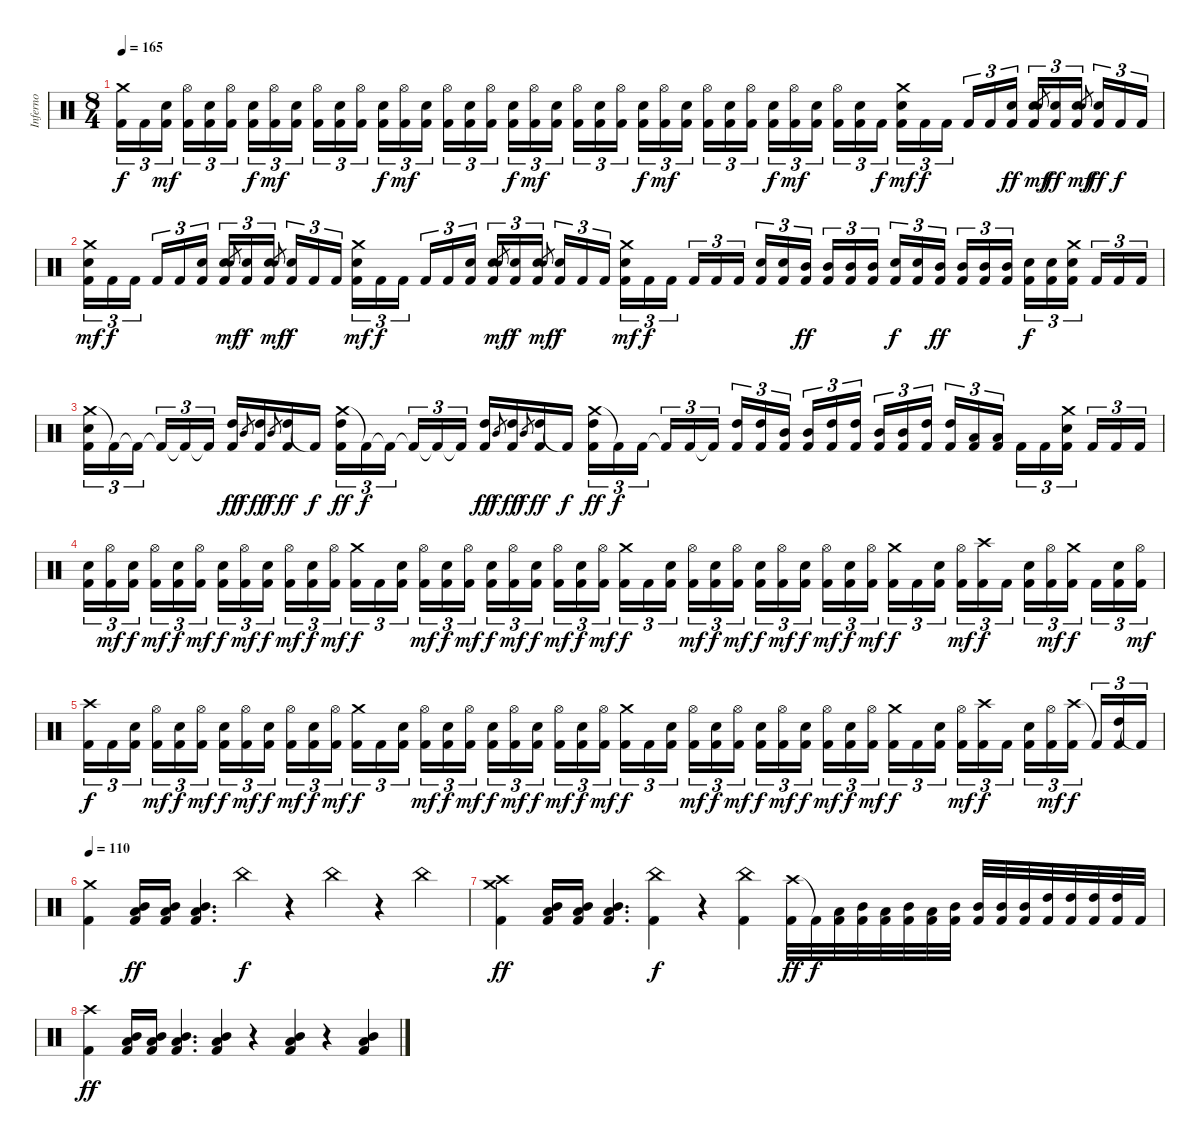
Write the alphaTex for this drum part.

\track ("Inferno" "Inferno") {instrument percussion}
\staff {score}
\articulation defaults
\ts (8 4)
\tempo 165
\clef neutral
\ks c
("Crash medium (hit)" "Kick (hit) 2").16{tu (3 2) dy f} "Kick (hit) 2".16{tu (3 2)} ("Snare (hit) 2" "Kick (hit) 2").16{tu (3 2) dy mf beam splitsecondary} ("Hi-Hat (open)" "Kick (hit) 2").16{tu (3 2)} ("Snare (hit) 2" "Kick (hit) 2").16{tu (3 2)} ("Hi-Hat (open)" "Kick (hit) 2").16{tu (3 2)} ("Snare (hit) 2" "Kick (hit) 2").16{tu (3 2) dy f} ("Hi-Hat (open)" "Kick (hit) 2").16{tu (3 2) dy mf} ("Snare (hit) 2" "Kick (hit) 2").16{tu (3 2) beam splitsecondary} ("Hi-Hat (open)" "Kick (hit) 2").16{tu (3 2)} ("Snare (hit) 2" "Kick (hit) 2").16{tu (3 2)} ("Hi-Hat (open)" "Kick (hit) 2").16{tu (3 2)} ("Snare (hit) 2" "Kick (hit) 2").16{tu (3 2) dy f} ("Hi-Hat (open)" "Kick (hit) 2").16{tu (3 2) dy mf} ("Snare (hit) 2" "Kick (hit) 2").16{tu (3 2) beam splitsecondary} ("Hi-Hat (open)" "Kick (hit) 2").16{tu (3 2)} ("Snare (hit) 2" "Kick (hit) 2").16{tu (3 2)} ("Hi-Hat (open)" "Kick (hit) 2").16{tu (3 2)} ("Snare (hit) 2" "Kick (hit) 2").16{tu (3 2) dy f} ("Hi-Hat (open)" "Kick (hit) 2").16{tu (3 2) dy mf} ("Snare (hit) 2" "Kick (hit) 2").16{tu (3 2) beam splitsecondary} ("Hi-Hat (open)" "Kick (hit) 2").16{tu (3 2)} ("Snare (hit) 2" "Kick (hit) 2").16{tu (3 2)} ("Hi-Hat (open)" "Kick (hit) 2").16{tu (3 2)} ("Snare (hit) 2" "Kick (hit) 2").16{tu (3 2) dy f} ("Hi-Hat (open)" "Kick (hit) 2").16{tu (3 2) dy mf} ("Snare (hit) 2" "Kick (hit) 2").16{tu (3 2) beam splitsecondary} ("Hi-Hat (open)" "Kick (hit) 2").16{tu (3 2)} ("Snare (hit) 2" "Kick (hit) 2").16{tu (3 2)} ("Hi-Hat (open)" "Kick (hit) 2").16{tu (3 2)} ("Snare (hit) 2" "Kick (hit) 2").16{tu (3 2) dy f} ("Hi-Hat (open)" "Kick (hit) 2").16{tu (3 2) dy mf} ("Snare (hit) 2" "Kick (hit) 2").16{tu (3 2) beam splitsecondary} ("Hi-Hat (open)" "Kick (hit) 2").16{tu (3 2)} ("Snare (hit) 2" "Kick (hit) 2").16{tu (3 2)} "Kick (hit) 2".16{tu (3 2) dy f} ("Crash medium (hit)" "Snare (hit) 2" "Kick (hit) 2").16{tu (3 2) dy mf} "Kick (hit) 2".16{tu (3 2) dy f} "Kick (hit) 2".16{tu (3 2) beam splitsecondary} "Kick (hit) 2".16{tu (3 2)} "Kick (hit) 2".16{tu (3 2)} ("Snare (hit) 2" "Kick (hit) 2").16{tu (3 2) dy ff} ("Snare (hit) 2" "Kick (hit) 2").16{tu (3 2)} "Snare (hit) 2".8{gr dy mf} ("Snare (hit) 2" "Kick (hit) 2").16{tu (3 2) dy ff} ("Snare (hit) 2" "Kick (hit) 2").16{tu (3 2)} "Snare (hit) 2".8{gr dy mf beam splitsecondary} ("Snare (hit) 2" "Kick (hit) 2").16{tu (3 2) dy ff} "Kick (hit) 2".16{tu (3 2) dy f} "Kick (hit) 2".16{tu (3 2)} |
("Crash medium (hit)" "Snare (hit) 2" "Kick (hit) 2").16{tu (3 2) dy mf} "Kick (hit) 2".16{tu (3 2) dy f} "Kick (hit) 2".16{tu (3 2) beam splitsecondary} "Kick (hit) 2".16{tu (3 2)} "Kick (hit) 2".16{tu (3 2)} ("Snare (hit) 2" "Kick (hit) 2").16{tu (3 2)} ("Snare (hit) 2" "Kick (hit) 2").16{tu (3 2)} "Snare (hit) 2".8{gr dy mf} ("Snare (hit) 2" "Kick (hit) 2").16{tu (3 2) dy f} ("Snare (hit) 2" "Kick (hit) 2").16{tu (3 2)} "Snare (hit) 2".8{gr dy mf beam splitsecondary} ("Snare (hit) 2" "Kick (hit) 2").16{tu (3 2) dy f} "Kick (hit) 2".16{tu (3 2)} "Kick (hit) 2".16{tu (3 2)} ("Crash medium (hit)" "Snare (hit) 2" "Kick (hit) 2").16{tu (3 2) dy mf} "Kick (hit) 2".16{tu (3 2) dy f} "Kick (hit) 2".16{tu (3 2) beam splitsecondary} "Kick (hit) 2".16{tu (3 2)} "Kick (hit) 2".16{tu (3 2)} ("Snare (hit) 2" "Kick (hit) 2").16{tu (3 2)} ("Snare (hit) 2" "Kick (hit) 2").16{tu (3 2)} "Snare (hit) 2".8{gr dy mf} ("Snare (hit) 2" "Kick (hit) 2").16{tu (3 2) dy f} ("Snare (hit) 2" "Kick (hit) 2").16{tu (3 2)} "Snare (hit) 2".8{gr dy mf beam splitsecondary} ("Snare (hit) 2" "Kick (hit) 2").16{tu (3 2) dy f} "Kick (hit) 2".16{tu (3 2)} "Kick (hit) 2".16{tu (3 2)} ("Crash medium (hit)" "Snare (hit) 2" "Kick (hit) 2").16{tu (3 2) dy mf} "Kick (hit) 2".16{tu (3 2) dy f} "Kick (hit) 2".16{tu (3 2) beam splitsecondary} "Kick (hit) 2".16{tu (3 2)} "Kick (hit) 2".16{tu (3 2)} "Kick (hit) 2".16{tu (3 2)} ("Snare (hit) 2" "Kick (hit) 2").16{tu (3 2)} ("Snare (hit) 2" "Kick (hit) 2").16{tu (3 2)} ("Mid Tom (hit)" "Kick (hit) 2").16{tu (3 2) dy ff beam splitsecondary} ("Mid Tom (hit)" "Kick (hit) 2").16{tu (3 2)} ("Mid Tom (hit)" "Kick (hit) 2").16{tu (3 2)} ("Mid Tom (hit)" "Kick (hit) 2").16{tu (3 2)} ("Snare (hit) 2" "Kick (hit) 2").16{tu (3 2) dy f} ("Snare (hit) 2" "Kick (hit) 2").16{tu (3 2)} ("Mid Tom (hit)" "Kick (hit) 2").16{tu (3 2) dy ff beam splitsecondary} ("Mid Tom (hit)" "Kick (hit) 2").16{tu (3 2)} ("Mid Tom (hit)" "Kick (hit) 2").16{tu (3 2)} ("Mid Tom (hit)" "Kick (hit) 2").16{tu (3 2)} ("Snare (hit) 2" "Kick (hit) 2").16{tu (3 2) dy f} ("Snare (hit) 2" "Kick (hit) 2").16{tu (3 2)} ("Crash medium (hit)" "Snare (hit) 2" "Kick (hit) 2").16{tu (3 2) beam splitsecondary} "Kick (hit) 2".16{tu (3 2)} "Kick (hit) 2".16{tu (3 2)} "Kick (hit) 2".16{tu (3 2)} |
("Crash medium (hit)" "Snare (hit) 2" "Kick (hit) 2").16{tu (3 2)} "Kick (hit) 2"{t}.16{tu (3 2)} "Kick (hit) 2"{t}.16{tu (3 2) beam splitsecondary} "Kick (hit) 2"{t}.16{tu (3 2)} "Kick (hit) 2"{t}.16{tu (3 2)} "Kick (hit) 2"{t}.16{tu (3 2)} ("High Tom (hit)" "Kick (hit) 2").16{dy ff} "Mid Tom (hit)".8{gr dy f} ("High Tom (hit)" "Kick (hit) 2").16{dy ff} "Mid Tom (hit)".8{gr dy f} ("High Tom (hit)" "Kick (hit) 2").16{dy ff} "Kick (hit) 2"{t}.16{dy f} ("Crash medium (hit)" "High Tom (hit)" "Kick (hit) 2").16{tu (3 2) dy ff} "Kick (hit) 2"{t}.16{tu (3 2) dy f} "Kick (hit) 2"{t}.16{tu (3 2) beam splitsecondary} "Kick (hit) 2"{t}.16{tu (3 2)} "Kick (hit) 2"{t}.16{tu (3 2)} "Kick (hit) 2"{t}.16{tu (3 2)} ("High Tom (hit)" "Kick (hit) 2").16{dy ff} "Mid Tom (hit)".8{gr dy f} ("High Tom (hit)" "Kick (hit) 2").16{dy ff} "Mid Tom (hit)".8{gr dy f} ("High Tom (hit)" "Kick (hit) 2").16{dy ff} "Kick (hit) 2"{t}.16{dy f} ("Crash medium (hit)" "High Tom (hit)" "Kick (hit) 2").16{tu (3 2) dy ff} "Kick (hit) 2"{t}.16{tu (3 2) dy f} "Kick (hit) 2".16{tu (3 2) beam splitsecondary} "Kick (hit) 2"{t}.16{tu (3 2)} "Kick (hit) 2".16{tu (3 2)} "Kick (hit) 2"{t}.16{tu (3 2)} ("High Tom (hit)" "Kick (hit) 2").16{tu (3 2)} ("High Tom (hit)" "Kick (hit) 2").16{tu (3 2)} ("Mid Tom (hit)" "Kick (hit) 2").16{tu (3 2) beam splitsecondary} ("Mid Tom (hit)" "Kick (hit) 2").16{tu (3 2)} ("High Tom (hit)" "Kick (hit) 2").16{tu (3 2)} ("High Tom (hit)" "Kick (hit) 2").16{tu (3 2)} ("Mid Tom (hit)" "Kick (hit) 2").16{tu (3 2)} ("Mid Tom (hit)" "Kick (hit) 2").16{tu (3 2)} ("High Tom (hit)" "Kick (hit) 2").16{tu (3 2) beam splitsecondary} ("High Tom (hit)" "Kick (hit) 2").16{tu (3 2)} ("Low Tom (hit)" "Kick (hit) 2").16{tu (3 2)} ("Low Tom (hit)" "Kick (hit) 2").16{tu (3 2)} "Kick (hit) 2".16{tu (3 2)} "Kick (hit) 2".16{tu (3 2)} ("Crash medium (hit)" "Snare (hit) 2" "Kick (hit) 2").16{tu (3 2) beam splitsecondary} "Kick (hit) 2".16{tu (3 2)} "Kick (hit) 2".16{tu (3 2)} "Kick (hit) 2".16{tu (3 2)} |
("Snare (hit) 2" "Kick (hit) 2").16{tu (3 2)} ("Hi-Hat (open)" "Kick (hit) 2").16{tu (3 2) dy mf} ("Snare (hit) 2" "Kick (hit) 2").16{tu (3 2) dy f beam splitsecondary} ("Hi-Hat (open)" "Kick (hit) 2").16{tu (3 2) dy mf} ("Snare (hit) 2" "Kick (hit) 2").16{tu (3 2) dy f} ("Hi-Hat (open)" "Kick (hit) 2").16{tu (3 2) dy mf} ("Snare (hit) 2" "Kick (hit) 2").16{tu (3 2) dy f} ("Hi-Hat (open)" "Kick (hit) 2").16{tu (3 2) dy mf} ("Snare (hit) 2" "Kick (hit) 2").16{tu (3 2) dy f beam splitsecondary} ("Hi-Hat (open)" "Kick (hit) 2").16{tu (3 2) dy mf} ("Snare (hit) 2" "Kick (hit) 2").16{tu (3 2) dy f} ("Hi-Hat (open)" "Kick (hit) 2").16{tu (3 2) dy mf} ("Crash medium (hit)" "Kick (hit) 2").16{tu (3 2) dy f} "Kick (hit) 2".16{tu (3 2)} ("Snare (hit) 2" "Kick (hit) 2").16{tu (3 2) beam splitsecondary} ("Hi-Hat (open)" "Kick (hit) 2").16{tu (3 2) dy mf} ("Snare (hit) 2" "Kick (hit) 2").16{tu (3 2) dy f} ("Hi-Hat (open)" "Kick (hit) 2").16{tu (3 2) dy mf} ("Snare (hit) 2" "Kick (hit) 2").16{tu (3 2) dy f} ("Hi-Hat (open)" "Kick (hit) 2").16{tu (3 2) dy mf} ("Snare (hit) 2" "Kick (hit) 2").16{tu (3 2) dy f beam splitsecondary} ("Hi-Hat (open)" "Kick (hit) 2").16{tu (3 2) dy mf} ("Snare (hit) 2" "Kick (hit) 2").16{tu (3 2) dy f} ("Hi-Hat (open)" "Kick (hit) 2").16{tu (3 2) dy mf} ("Crash medium (hit)" "Kick (hit) 2").16{tu (3 2) dy f} "Kick (hit) 2".16{tu (3 2)} ("Snare (hit) 2" "Kick (hit) 2").16{tu (3 2) beam splitsecondary} ("Hi-Hat (open)" "Kick (hit) 2").16{tu (3 2) dy mf} ("Snare (hit) 2" "Kick (hit) 2").16{tu (3 2) dy f} ("Hi-Hat (open)" "Kick (hit) 2").16{tu (3 2) dy mf} ("Snare (hit) 2" "Kick (hit) 2").16{tu (3 2) dy f} ("Hi-Hat (open)" "Kick (hit) 2").16{tu (3 2) dy mf} ("Snare (hit) 2" "Kick (hit) 2").16{tu (3 2) dy f beam splitsecondary} ("Hi-Hat (open)" "Kick (hit) 2").16{tu (3 2) dy mf} ("Snare (hit) 2" "Kick (hit) 2").16{tu (3 2) dy f} ("Hi-Hat (open)" "Kick (hit) 2").16{tu (3 2) dy mf} ("Crash medium (hit)" "Kick (hit) 2").16{tu (3 2) dy f} "Kick (hit) 2".16{tu (3 2)} ("Snare (hit) 2" "Kick (hit) 2").16{tu (3 2) beam splitsecondary} ("Hi-Hat (open)" "Kick (hit) 2").16{tu (3 2) dy mf} ("Crash high (hit)" "Kick (hit) 2").16{tu (3 2) dy f} "Kick (hit) 2".16{tu (3 2)} ("Snare (hit) 2" "Kick (hit) 2").16{tu (3 2)} ("Hi-Hat (open)" "Kick (hit) 2").16{tu (3 2) dy mf} ("Crash medium (hit)" "Kick (hit) 2").16{tu (3 2) dy f beam splitsecondary} "Kick (hit) 2".16{tu (3 2)} ("Snare (hit) 2" "Kick (hit) 2").16{tu (3 2)} ("Hi-Hat (open)" "Kick (hit) 2").16{tu (3 2) dy mf} |
("Crash high (hit)" "Kick (hit) 2").16{tu (3 2) dy f} "Kick (hit) 2".16{tu (3 2)} ("Snare (hit) 2" "Kick (hit) 2").16{tu (3 2) beam splitsecondary} ("Hi-Hat (open)" "Kick (hit) 2").16{tu (3 2) dy mf} ("Snare (hit) 2" "Kick (hit) 2").16{tu (3 2) dy f} ("Hi-Hat (open)" "Kick (hit) 2").16{tu (3 2) dy mf} ("Snare (hit) 2" "Kick (hit) 2").16{tu (3 2) dy f} ("Hi-Hat (open)" "Kick (hit) 2").16{tu (3 2) dy mf} ("Snare (hit) 2" "Kick (hit) 2").16{tu (3 2) dy f beam splitsecondary} ("Hi-Hat (open)" "Kick (hit) 2").16{tu (3 2) dy mf} ("Snare (hit) 2" "Kick (hit) 2").16{tu (3 2) dy f} ("Hi-Hat (open)" "Kick (hit) 2").16{tu (3 2) dy mf} ("Crash medium (hit)" "Kick (hit) 2").16{tu (3 2) dy f} "Kick (hit) 2".16{tu (3 2)} ("Snare (hit) 2" "Kick (hit) 2").16{tu (3 2) beam splitsecondary} ("Hi-Hat (open)" "Kick (hit) 2").16{tu (3 2) dy mf} ("Snare (hit) 2" "Kick (hit) 2").16{tu (3 2) dy f} ("Hi-Hat (open)" "Kick (hit) 2").16{tu (3 2) dy mf} ("Snare (hit) 2" "Kick (hit) 2").16{tu (3 2) dy f} ("Hi-Hat (open)" "Kick (hit) 2").16{tu (3 2) dy mf} ("Snare (hit) 2" "Kick (hit) 2").16{tu (3 2) dy f beam splitsecondary} ("Hi-Hat (open)" "Kick (hit) 2").16{tu (3 2) dy mf} ("Snare (hit) 2" "Kick (hit) 2").16{tu (3 2) dy f} ("Hi-Hat (open)" "Kick (hit) 2").16{tu (3 2) dy mf} ("Crash medium (hit)" "Kick (hit) 2").16{tu (3 2) dy f} "Kick (hit) 2".16{tu (3 2)} ("Snare (hit) 2" "Kick (hit) 2").16{tu (3 2) beam splitsecondary} ("Hi-Hat (open)" "Kick (hit) 2").16{tu (3 2) dy mf} ("Snare (hit) 2" "Kick (hit) 2").16{tu (3 2) dy f} ("Hi-Hat (open)" "Kick (hit) 2").16{tu (3 2) dy mf} ("Snare (hit) 2" "Kick (hit) 2").16{tu (3 2) dy f} ("Hi-Hat (open)" "Kick (hit) 2").16{tu (3 2) dy mf} ("Snare (hit) 2" "Kick (hit) 2").16{tu (3 2) dy f beam splitsecondary} ("Hi-Hat (open)" "Kick (hit) 2").16{tu (3 2) dy mf} ("Snare (hit) 2" "Kick (hit) 2").16{tu (3 2) dy f} ("Hi-Hat (open)" "Kick (hit) 2").16{tu (3 2) dy mf} ("Crash medium (hit)" "Kick (hit) 2").16{tu (3 2) dy f} "Kick (hit) 2".16{tu (3 2)} ("Snare (hit) 2" "Kick (hit) 2").16{tu (3 2) beam splitsecondary} ("Hi-Hat (open)" "Kick (hit) 2").16{tu (3 2) dy mf} ("Crash high (hit)" "Kick (hit) 2").16{tu (3 2) dy f} "Kick (hit) 2".16{tu (3 2)} ("Snare (hit) 2" "Kick (hit) 2").16{tu (3 2)} ("Hi-Hat (open)" "Kick (hit) 2").16{tu (3 2) dy mf} ("Crash high (hit)" "Kick (hit) 2").16{tu (3 2) dy f beam splitsecondary} "Kick (hit) 2"{t}.16{tu (3 2)} ("High Tom (hit)" "Kick (hit) 2").16{tu (3 2)} "Kick (hit) 2"{t}.16{tu (3 2)} |
\tempo 110
("Crash medium (hit)" "Kick (hit) 2").4 ("Low Floor Tom (hit)" "Mid Tom (hit)" "Kick (hit) 2").16{dy ff} ("Low Floor Tom (hit)" "Mid Tom (hit)" "Kick (hit) 2").16 ("Low Floor Tom (hit)" "Mid Tom (hit)" "Kick (hit) 2").4{d} "China (hit)".4{dy f} r.4 "China (hit)".4 r.4 "China (hit)".4 |
("Crash high (hit)" "Crash medium (hit)" "Kick (hit) 2").4{dy ff} ("Low Floor Tom (hit)" "Mid Tom (hit)" "Kick (hit) 2").16 ("Low Floor Tom (hit)" "Mid Tom (hit)" "Kick (hit) 2").16 ("Low Floor Tom (hit)" "Mid Tom (hit)" "Kick (hit) 2").4{d} ("China (hit)" "Kick (hit) 2").4{dy f} r.4 ("China (hit)" "Kick (hit) 2").4 ("Crash high (hit)" "Kick (hit) 2").32{dy ff} "Kick (hit) 2"{t}.32{dy f} ("Low Tom (hit)" "Kick (hit) 2").32 ("Mid Tom (hit)" "Kick (hit) 2").32 ("Low Tom (hit)" "Kick (hit) 2").32 ("Mid Tom (hit)" "Kick (hit) 2").32 ("Low Tom (hit)" "Kick (hit) 2").32 ("Mid Tom (hit)" "Kick (hit) 2").32 ("Mid Tom (hit)" "Kick (hit) 2").32 ("Mid Tom (hit)" "Kick (hit) 2").32 ("Mid Tom (hit)" "Kick (hit) 2").32 ("High Tom (hit)" "Kick (hit) 2").32 ("High Tom (hit)" "Kick (hit) 2").32 ("High Tom (hit)" "Kick (hit) 2").32 ("High Tom (hit)" "Kick (hit) 2").32 "Kick (hit) 2".32 |
("Crash high (hit)" "Kick (hit) 2").4{dy ff} ("Low Floor Tom (hit)" "Mid Tom (hit)" "Kick (hit) 2").16 ("Low Floor Tom (hit)" "Mid Tom (hit)" "Kick (hit) 2").16 ("Low Floor Tom (hit)" "Mid Tom (hit)" "Kick (hit) 2").4{d} ("Low Floor Tom (hit)" "Mid Tom (hit)" "Kick (hit) 2").4 r.4 ("Low Floor Tom (hit)" "Mid Tom (hit)" "Kick (hit) 2").4 r.4 ("Low Floor Tom (hit)" "Mid Tom (hit)" "Kick (hit) 2").4
